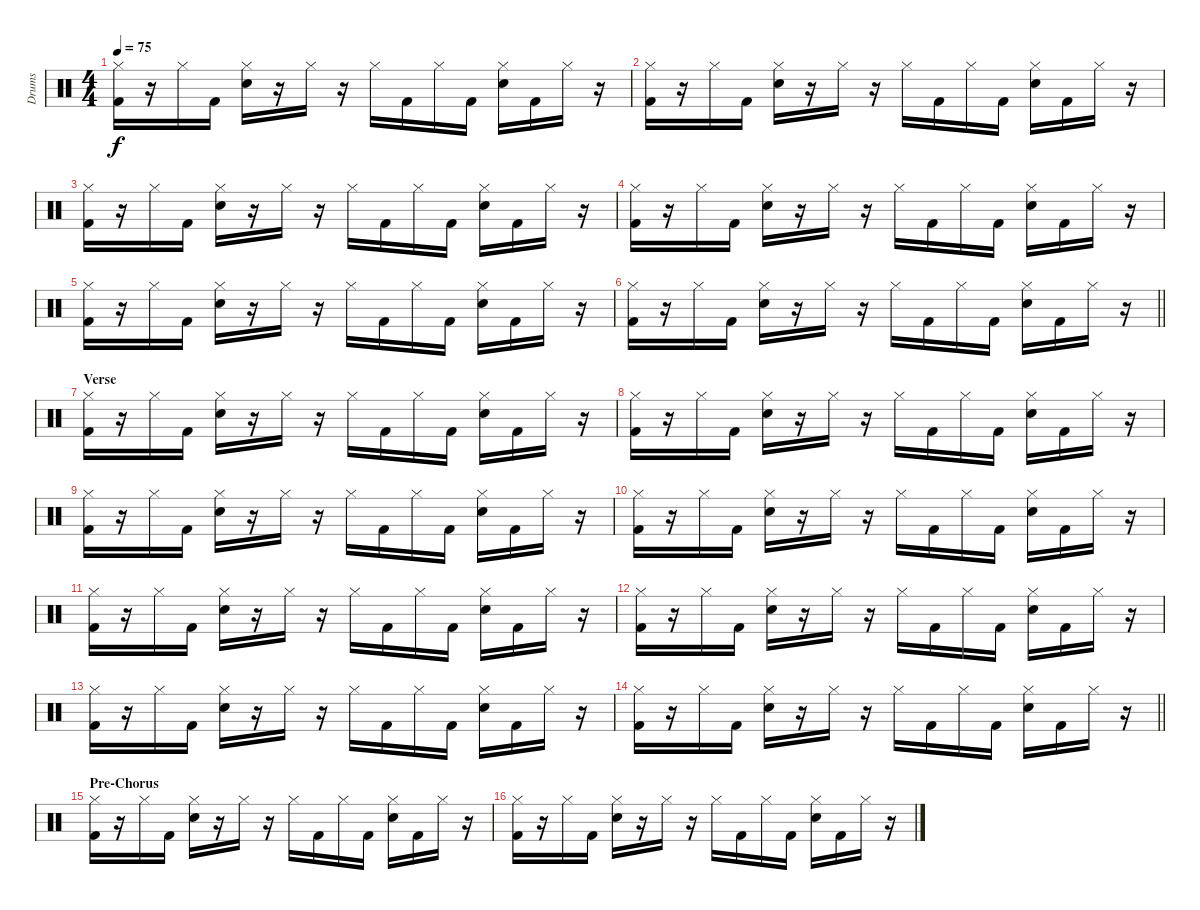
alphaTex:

\track ("Drums" "Drums") {instrument percussion}
\staff {score}
\articulation defaults
\ts (4 4)
\tempo 75
\clef neutral
\ks c
("Hi-Hat (closed)" "Kick (hit) 2").16{dy f} r.16 "Hi-Hat (closed)".16 "Kick (hit) 2".16 ("Hi-Hat (closed)" "Electric Snare (hit)").16 r.16 "Hi-Hat (closed)".16 r.16 "Hi-Hat (closed)".16 "Kick (hit) 2".16 "Hi-Hat (closed)".16 "Kick (hit) 2".16 ("Hi-Hat (closed)" "Electric Snare (hit)").16 "Kick (hit) 2".16 "Hi-Hat (closed)".16 r.16 |
("Hi-Hat (closed)" "Kick (hit) 2").16 r.16 "Hi-Hat (closed)".16 "Kick (hit) 2".16 ("Hi-Hat (closed)" "Electric Snare (hit)").16 r.16 "Hi-Hat (closed)".16 r.16 "Hi-Hat (closed)".16 "Kick (hit) 2".16 "Hi-Hat (closed)".16 "Kick (hit) 2".16 ("Hi-Hat (closed)" "Electric Snare (hit)").16 "Kick (hit) 2".16 "Hi-Hat (closed)".16 r.16 |
("Hi-Hat (closed)" "Kick (hit) 2").16 r.16 "Hi-Hat (closed)".16 "Kick (hit) 2".16 ("Hi-Hat (closed)" "Electric Snare (hit)").16 r.16 "Hi-Hat (closed)".16 r.16 "Hi-Hat (closed)".16 "Kick (hit) 2".16 "Hi-Hat (closed)".16 "Kick (hit) 2".16 ("Hi-Hat (closed)" "Electric Snare (hit)").16 "Kick (hit) 2".16 "Hi-Hat (closed)".16 r.16 |
("Hi-Hat (closed)" "Kick (hit) 2").16 r.16 "Hi-Hat (closed)".16 "Kick (hit) 2".16 ("Hi-Hat (closed)" "Electric Snare (hit)").16 r.16 "Hi-Hat (closed)".16 r.16 "Hi-Hat (closed)".16 "Kick (hit) 2".16 "Hi-Hat (closed)".16 "Kick (hit) 2".16 ("Hi-Hat (closed)" "Electric Snare (hit)").16 "Kick (hit) 2".16 "Hi-Hat (closed)".16 r.16 |
("Hi-Hat (closed)" "Kick (hit) 2").16 r.16 "Hi-Hat (closed)".16 "Kick (hit) 2".16 ("Hi-Hat (closed)" "Electric Snare (hit)").16 r.16 "Hi-Hat (closed)".16 r.16 "Hi-Hat (closed)".16 "Kick (hit) 2".16 "Hi-Hat (closed)".16 "Kick (hit) 2".16 ("Hi-Hat (closed)" "Electric Snare (hit)").16 "Kick (hit) 2".16 "Hi-Hat (closed)".16 r.16 |
\barLineRight lightlight
("Hi-Hat (closed)" "Kick (hit) 2").16 r.16 "Hi-Hat (closed)".16 "Kick (hit) 2".16 ("Hi-Hat (closed)" "Electric Snare (hit)").16 r.16 "Hi-Hat (closed)".16 r.16 "Hi-Hat (closed)".16 "Kick (hit) 2".16 "Hi-Hat (closed)".16 "Kick (hit) 2".16 ("Hi-Hat (closed)" "Electric Snare (hit)").16 "Kick (hit) 2".16 "Hi-Hat (closed)".16 r.16 |
\section ("" "Verse")
("Hi-Hat (closed)" "Kick (hit) 2").16 r.16 "Hi-Hat (closed)".16 "Kick (hit) 2".16 ("Hi-Hat (closed)" "Electric Snare (hit)").16 r.16 "Hi-Hat (closed)".16 r.16 "Hi-Hat (closed)".16 "Kick (hit) 2".16 "Hi-Hat (closed)".16 "Kick (hit) 2".16 ("Hi-Hat (closed)" "Electric Snare (hit)").16 "Kick (hit) 2".16 "Hi-Hat (closed)".16 r.16 |
("Hi-Hat (closed)" "Kick (hit) 2").16 r.16 "Hi-Hat (closed)".16 "Kick (hit) 2".16 ("Hi-Hat (closed)" "Electric Snare (hit)").16 r.16 "Hi-Hat (closed)".16 r.16 "Hi-Hat (closed)".16 "Kick (hit) 2".16 "Hi-Hat (closed)".16 "Kick (hit) 2".16 ("Hi-Hat (closed)" "Electric Snare (hit)").16 "Kick (hit) 2".16 "Hi-Hat (closed)".16 r.16 |
("Hi-Hat (closed)" "Kick (hit) 2").16 r.16 "Hi-Hat (closed)".16 "Kick (hit) 2".16 ("Hi-Hat (closed)" "Electric Snare (hit)").16 r.16 "Hi-Hat (closed)".16 r.16 "Hi-Hat (closed)".16 "Kick (hit) 2".16 "Hi-Hat (closed)".16 "Kick (hit) 2".16 ("Hi-Hat (closed)" "Electric Snare (hit)").16 "Kick (hit) 2".16 "Hi-Hat (closed)".16 r.16 |
("Hi-Hat (closed)" "Kick (hit) 2").16 r.16 "Hi-Hat (closed)".16 "Kick (hit) 2".16 ("Hi-Hat (closed)" "Electric Snare (hit)").16 r.16 "Hi-Hat (closed)".16 r.16 "Hi-Hat (closed)".16 "Kick (hit) 2".16 "Hi-Hat (closed)".16 "Kick (hit) 2".16 ("Hi-Hat (closed)" "Electric Snare (hit)").16 "Kick (hit) 2".16 "Hi-Hat (closed)".16 r.16 |
("Hi-Hat (closed)" "Kick (hit) 2").16 r.16 "Hi-Hat (closed)".16 "Kick (hit) 2".16 ("Hi-Hat (closed)" "Electric Snare (hit)").16 r.16 "Hi-Hat (closed)".16 r.16 "Hi-Hat (closed)".16 "Kick (hit) 2".16 "Hi-Hat (closed)".16 "Kick (hit) 2".16 ("Hi-Hat (closed)" "Electric Snare (hit)").16 "Kick (hit) 2".16 "Hi-Hat (closed)".16 r.16 |
("Hi-Hat (closed)" "Kick (hit) 2").16 r.16 "Hi-Hat (closed)".16 "Kick (hit) 2".16 ("Hi-Hat (closed)" "Electric Snare (hit)").16 r.16 "Hi-Hat (closed)".16 r.16 "Hi-Hat (closed)".16 "Kick (hit) 2".16 "Hi-Hat (closed)".16 "Kick (hit) 2".16 ("Hi-Hat (closed)" "Electric Snare (hit)").16 "Kick (hit) 2".16 "Hi-Hat (closed)".16 r.16 |
("Hi-Hat (closed)" "Kick (hit) 2").16 r.16 "Hi-Hat (closed)".16 "Kick (hit) 2".16 ("Hi-Hat (closed)" "Electric Snare (hit)").16 r.16 "Hi-Hat (closed)".16 r.16 "Hi-Hat (closed)".16 "Kick (hit) 2".16 "Hi-Hat (closed)".16 "Kick (hit) 2".16 ("Hi-Hat (closed)" "Electric Snare (hit)").16 "Kick (hit) 2".16 "Hi-Hat (closed)".16 r.16 |
\barLineRight lightlight
("Hi-Hat (closed)" "Kick (hit) 2").16 r.16 "Hi-Hat (closed)".16 "Kick (hit) 2".16 ("Hi-Hat (closed)" "Electric Snare (hit)").16 r.16 "Hi-Hat (closed)".16 r.16 "Hi-Hat (closed)".16 "Kick (hit) 2".16 "Hi-Hat (closed)".16 "Kick (hit) 2".16 ("Hi-Hat (closed)" "Electric Snare (hit)").16 "Kick (hit) 2".16 "Hi-Hat (closed)".16 r.16 |
\section ("" "Pre-Chorus")
("Hi-Hat (closed)" "Kick (hit) 2").16 r.16 "Hi-Hat (closed)".16 "Kick (hit) 2".16 ("Hi-Hat (closed)" "Electric Snare (hit)").16 r.16 "Hi-Hat (closed)".16 r.16 "Hi-Hat (closed)".16 "Kick (hit) 2".16 "Hi-Hat (closed)".16 "Kick (hit) 2".16 ("Hi-Hat (closed)" "Electric Snare (hit)").16 "Kick (hit) 2".16 "Hi-Hat (closed)".16 r.16 |
("Hi-Hat (closed)" "Kick (hit) 2").16 r.16 "Hi-Hat (closed)".16 "Kick (hit) 2".16 ("Hi-Hat (closed)" "Electric Snare (hit)").16 r.16 "Hi-Hat (closed)".16 r.16 "Hi-Hat (closed)".16 "Kick (hit) 2".16 "Hi-Hat (closed)".16 "Kick (hit) 2".16 ("Hi-Hat (closed)" "Electric Snare (hit)").16 "Kick (hit) 2".16 "Hi-Hat (closed)".16 r.16
